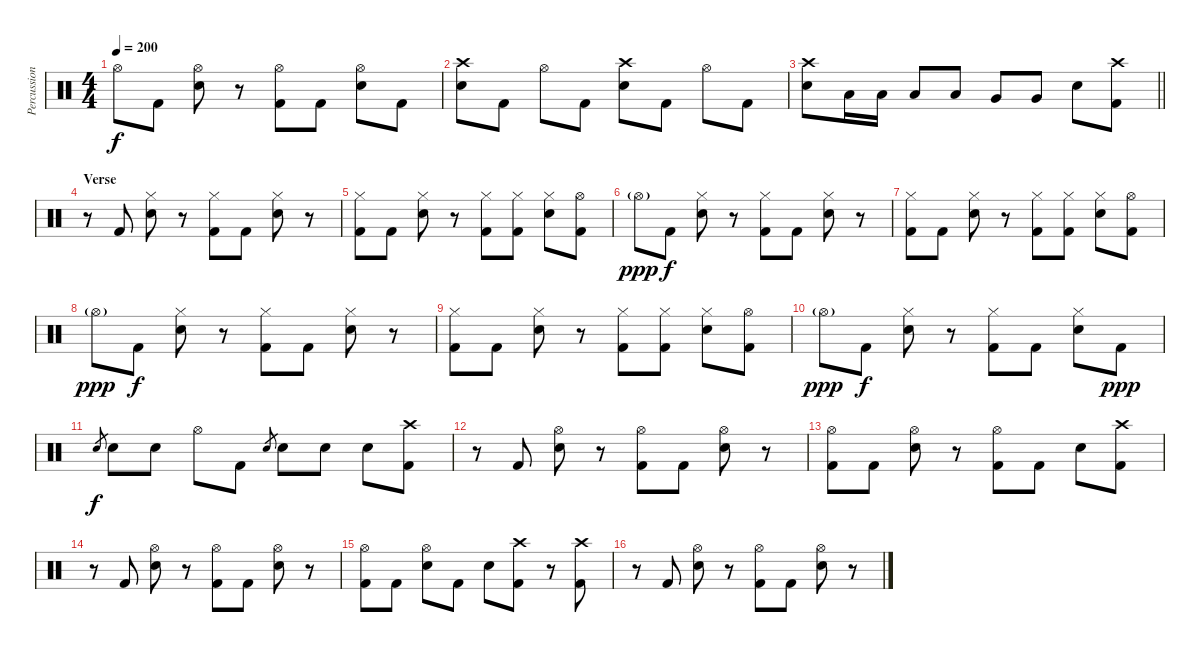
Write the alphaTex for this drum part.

\track ("Percussion" "Percussion") {instrument percussion}
\staff {score}
\articulation defaults
\ts (4 4)
\tempo 200
\clef neutral
\ks c "Hi-Hat (open)".8{dy f} "Kick (hit) 2".8
("Hi-Hat (open)" "Electric Snare (hit)").8 r.8 ("Hi-Hat (open)" "Kick (hit) 2").8 "Kick (hit) 2".8 ("Hi-Hat (open)" "Electric Snare (hit)").8 "Kick (hit) 2".8 |
("Crash high (hit)" "Electric Snare (hit)").8 "Kick (hit) 2".8 "Hi-Hat (open)".8 "Kick (hit) 2".8 ("Crash high (hit)" "Electric Snare (hit)").8 "Kick (hit) 2".8 "Hi-Hat (open)".8 "Kick (hit) 2".8 |
\barLineRight lightlight
("Crash high (hit)" "Electric Snare (hit)").8 "Low Tom (hit)".16 "Low Tom (hit)".16 "Low Tom (hit)".8 "Low Tom (hit)".8 "Very Low Tom (hit)".8 "Very Low Tom (hit)".8 "Electric Snare (hit)".8 ("Crash high (hit)" "Kick (hit) 2").8 |
\section ("" "Verse")
r.8 "Kick (hit) 2".8 ("Hi-Hat (closed)" "Electric Snare (hit)").8 r.8 ("Hi-Hat (closed)" "Kick (hit) 2").8 "Kick (hit) 2".8 ("Hi-Hat (closed)" "Electric Snare (hit)").8 r.8 |
("Hi-Hat (closed)" "Kick (hit) 2").8 "Kick (hit) 2".8 ("Hi-Hat (closed)" "Electric Snare (hit)").8 r.8 ("Hi-Hat (closed)" "Kick (hit) 2").8 ("Hi-Hat (closed)" "Kick (hit) 2").8 ("Hi-Hat (closed)" "Electric Snare (hit)").8 ("Hi-Hat (open)" "Kick (hit) 2").8 |
"Hi-Hat (open)"{g}.8{dy ppp volume 0} "Kick (hit) 2".8{dy f volume 13} ("Hi-Hat (closed)" "Electric Snare (hit)").8 r.8 ("Hi-Hat (closed)" "Kick (hit) 2").8 "Kick (hit) 2".8 ("Hi-Hat (closed)" "Electric Snare (hit)").8 r.8 |
("Hi-Hat (closed)" "Kick (hit) 2").8 "Kick (hit) 2".8 ("Hi-Hat (closed)" "Electric Snare (hit)").8 r.8 ("Hi-Hat (closed)" "Kick (hit) 2").8 ("Hi-Hat (closed)" "Kick (hit) 2").8 ("Hi-Hat (closed)" "Electric Snare (hit)").8 ("Hi-Hat (open)" "Kick (hit) 2").8 |
"Hi-Hat (open)"{g}.8{dy ppp volume 0} "Kick (hit) 2".8{dy f volume 13} ("Hi-Hat (closed)" "Electric Snare (hit)").8 r.8 ("Hi-Hat (closed)" "Kick (hit) 2").8 "Kick (hit) 2".8 ("Hi-Hat (closed)" "Electric Snare (hit)").8 r.8 |
("Hi-Hat (closed)" "Kick (hit) 2").8 "Kick (hit) 2".8 ("Hi-Hat (closed)" "Electric Snare (hit)").8 r.8 ("Hi-Hat (closed)" "Kick (hit) 2").8 ("Hi-Hat (closed)" "Kick (hit) 2").8 ("Hi-Hat (closed)" "Electric Snare (hit)").8 ("Hi-Hat (open)" "Kick (hit) 2").8 |
"Hi-Hat (open)"{g}.8{dy ppp volume 0} "Kick (hit) 2".8{dy f volume 13} ("Hi-Hat (closed)" "Electric Snare (hit)").8 r.8 ("Hi-Hat (closed)" "Kick (hit) 2").8 "Kick (hit) 2".8 ("Hi-Hat (closed)" "Electric Snare (hit)").8 "Kick (hit) 2".8{dy ppp} |
"Electric Snare (hit)".8{gr dy f} "Electric Snare (hit)".8 "Electric Snare (hit)".8 "Hi-Hat (open)".8 "Kick (hit) 2".8 "Electric Snare (hit)".8{gr} "Electric Snare (hit)".8 "Electric Snare (hit)".8 "Electric Snare (hit)".8 ("Crash high (hit)" "Kick (hit) 2").8 |
r.8 "Kick (hit) 2".8 ("Hi-Hat (open)" "Electric Snare (hit)").8 r.8 ("Hi-Hat (open)" "Kick (hit) 2").8 "Kick (hit) 2".8 ("Hi-Hat (open)" "Electric Snare (hit)").8 r.8 |
("Hi-Hat (open)" "Kick (hit) 2").8 "Kick (hit) 2".8 ("Hi-Hat (open)" "Electric Snare (hit)").8 r.8 ("Hi-Hat (open)" "Kick (hit) 2").8 "Kick (hit) 2".8 "Electric Snare (hit)".8 ("Crash high (hit)" "Kick (hit) 2").8 |
r.8 "Kick (hit) 2".8 ("Hi-Hat (open)" "Electric Snare (hit)").8 r.8 ("Hi-Hat (open)" "Kick (hit) 2").8 "Kick (hit) 2".8 ("Hi-Hat (open)" "Electric Snare (hit)").8 r.8 |
("Hi-Hat (open)" "Kick (hit) 2").8 "Kick (hit) 2".8 ("Hi-Hat (open)" "Electric Snare (hit)").8 "Kick (hit) 2".8 "Electric Snare (hit)".8 ("Crash high (hit)" "Kick (hit) 2").8 r.8 ("Crash high (hit)" "Kick (hit) 2").8 |
r.8 "Kick (hit) 2".8 ("Hi-Hat (open)" "Electric Snare (hit)").8 r.8 ("Hi-Hat (open)" "Kick (hit) 2").8 "Kick (hit) 2".8 ("Hi-Hat (open)" "Electric Snare (hit)").8 r.8
